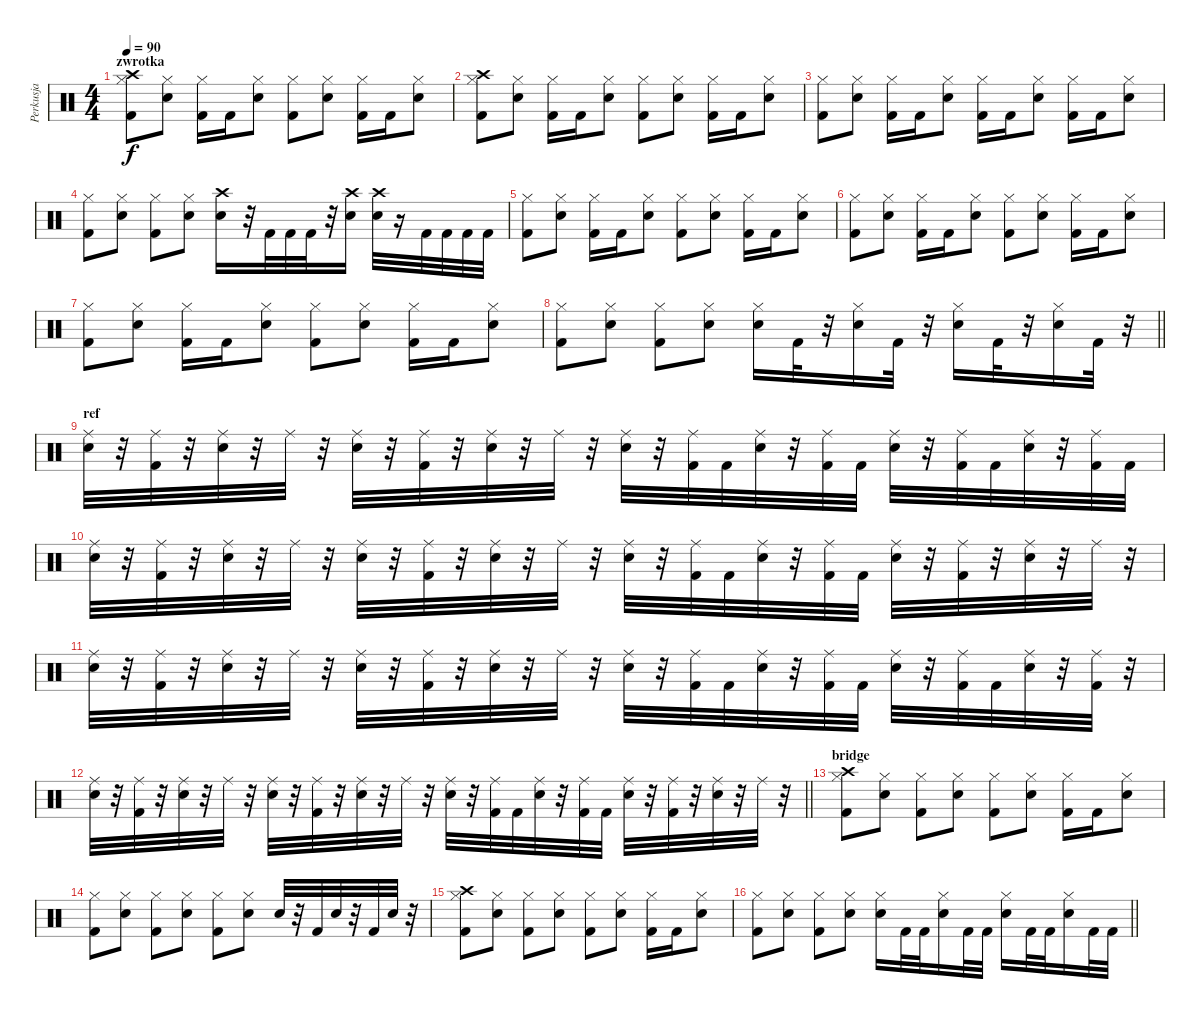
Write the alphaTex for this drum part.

\track ("Perkusja" "Perkusja") {instrument percussion}
\staff {score}
\articulation defaults
\ts (4 4)
\section ("" "zwrotka")
\tempo 90
\clef neutral
\ks c
("Kick (hit) 2" "Hi-Hat (closed)" "Crash high (hit)").8{dy f} ("Snare (hit) 2" "Hi-Hat (closed)").8 ("Kick (hit) 2" "Hi-Hat (closed)").16 "Kick (hit) 2".16 ("Snare (hit) 2" "Hi-Hat (closed)").8 ("Kick (hit) 2" "Hi-Hat (closed)").8 ("Snare (hit) 2" "Hi-Hat (closed)").8 ("Kick (hit) 2" "Hi-Hat (closed)").16 "Kick (hit) 2".16 ("Snare (hit) 2" "Hi-Hat (closed)").8 |
("Kick (hit) 2" "Hi-Hat (closed)" "Crash high (hit)").8 ("Snare (hit) 2" "Hi-Hat (closed)").8 ("Kick (hit) 2" "Hi-Hat (closed)").16 "Kick (hit) 2".16 ("Snare (hit) 2" "Hi-Hat (closed)").8 ("Kick (hit) 2" "Hi-Hat (closed)").8 ("Snare (hit) 2" "Hi-Hat (closed)").8 ("Kick (hit) 2" "Hi-Hat (closed)").16 "Kick (hit) 2".16 ("Snare (hit) 2" "Hi-Hat (closed)").8 |
("Kick (hit) 2" "Hi-Hat (closed)").8 ("Snare (hit) 2" "Hi-Hat (closed)").8 ("Kick (hit) 2" "Hi-Hat (closed)").16 "Kick (hit) 2".16 ("Snare (hit) 2" "Hi-Hat (closed)").8 ("Kick (hit) 2" "Hi-Hat (closed)").16 "Kick (hit) 2".16 ("Snare (hit) 2" "Hi-Hat (closed)").8 ("Kick (hit) 2" "Hi-Hat (closed)").16 "Kick (hit) 2".16 ("Snare (hit) 2" "Hi-Hat (closed)").8 |
("Kick (hit) 2" "Hi-Hat (closed)").8 ("Snare (hit) 2" "Hi-Hat (closed)").8 ("Kick (hit) 2" "Hi-Hat (closed)").8 ("Snare (hit) 2" "Hi-Hat (closed)").8 ("Snare (hit) 2" "Crash high (hit)").16 r.32 "Kick (hit) 2".32 "Kick (hit) 2".32 "Kick (hit) 2".32 r.32 ("Snare (hit) 2" "Crash high (hit)").16 ("Snare (hit) 2" "Crash high (hit)").32 r.16 "Kick (hit) 2".32 "Kick (hit) 2".32 "Kick (hit) 2".32 "Kick (hit) 2".32 |
("Kick (hit) 2" "Hi-Hat (closed)").8 ("Snare (hit) 2" "Hi-Hat (closed)").8 ("Kick (hit) 2" "Hi-Hat (closed)").16 "Kick (hit) 2".16 ("Snare (hit) 2" "Hi-Hat (closed)").8 ("Kick (hit) 2" "Hi-Hat (closed)").8 ("Snare (hit) 2" "Hi-Hat (closed)").8 ("Kick (hit) 2" "Hi-Hat (closed)").16 "Kick (hit) 2".16 ("Snare (hit) 2" "Hi-Hat (closed)").8 |
("Kick (hit) 2" "Hi-Hat (closed)").8 ("Snare (hit) 2" "Hi-Hat (closed)").8 ("Kick (hit) 2" "Hi-Hat (closed)").16 "Kick (hit) 2".16 ("Snare (hit) 2" "Hi-Hat (closed)").8 ("Kick (hit) 2" "Hi-Hat (closed)").8 ("Snare (hit) 2" "Hi-Hat (closed)").8 ("Kick (hit) 2" "Hi-Hat (closed)").16 "Kick (hit) 2".16 ("Snare (hit) 2" "Hi-Hat (closed)").8 |
("Kick (hit) 2" "Hi-Hat (closed)").8 ("Snare (hit) 2" "Hi-Hat (closed)").8 ("Kick (hit) 2" "Hi-Hat (closed)").16 "Kick (hit) 2".16 ("Snare (hit) 2" "Hi-Hat (closed)").8 ("Kick (hit) 2" "Hi-Hat (closed)").8 ("Snare (hit) 2" "Hi-Hat (closed)").8 ("Kick (hit) 2" "Hi-Hat (closed)").16 "Kick (hit) 2".16 ("Snare (hit) 2" "Hi-Hat (closed)").8 |
\barLineRight lightlight
("Kick (hit) 2" "Hi-Hat (closed)").8 ("Snare (hit) 2" "Hi-Hat (closed)").8 ("Kick (hit) 2" "Hi-Hat (closed)").8 ("Snare (hit) 2" "Hi-Hat (closed)").8 ("Snare (hit) 2" "Hi-Hat (closed)").16 "Kick (hit) 2".32 r.32 ("Snare (hit) 2" "Hi-Hat (closed)").16 "Kick (hit) 2".32 r.32 ("Snare (hit) 2" "Hi-Hat (closed)").16 "Kick (hit) 2".32 r.32 ("Snare (hit) 2" "Hi-Hat (closed)").16 "Kick (hit) 2".32 r.32 |
\section ("" "ref")
("Snare (hit) 2" "Ride (middle)").32 r.32 ("Kick (hit) 2" "Ride (middle)").32 r.32 ("Snare (hit) 2" "Ride (middle)").32 r.32 "Ride (middle)".32 r.32 ("Snare (hit) 2" "Ride (middle)").32 r.32 ("Kick (hit) 2" "Ride (middle)").32 r.32 ("Snare (hit) 2" "Ride (middle)").32 r.32 "Ride (middle)".32 r.32 ("Snare (hit) 2" "Ride (middle)").32 r.32 ("Kick (hit) 2" "Ride (middle)").32 "Kick (hit) 2".32 ("Snare (hit) 2" "Ride (middle)").32 r.32 ("Kick (hit) 2" "Ride (middle)").32 "Kick (hit) 2".32 ("Snare (hit) 2" "Ride (middle)").32 r.32 ("Kick (hit) 2" "Ride (middle)").32 "Kick (hit) 2".32 ("Snare (hit) 2" "Ride (middle)").32 r.32 ("Kick (hit) 2" "Ride (middle)").32 "Kick (hit) 2".32 |
("Snare (hit) 2" "Ride (middle)").32 r.32 ("Kick (hit) 2" "Ride (middle)").32 r.32 ("Snare (hit) 2" "Ride (middle)").32 r.32 "Ride (middle)".32 r.32 ("Snare (hit) 2" "Ride (middle)").32 r.32 ("Kick (hit) 2" "Ride (middle)").32 r.32 ("Snare (hit) 2" "Ride (middle)").32 r.32 "Ride (middle)".32 r.32 ("Snare (hit) 2" "Ride (middle)").32 r.32 ("Kick (hit) 2" "Ride (middle)").32 "Kick (hit) 2".32 ("Snare (hit) 2" "Ride (middle)").32 r.32 ("Kick (hit) 2" "Ride (middle)").32 "Kick (hit) 2".32 ("Snare (hit) 2" "Ride (middle)").32 r.32 ("Kick (hit) 2" "Ride (middle)").32 r.32 ("Snare (hit) 2" "Ride (middle)").32 r.32 "Ride (middle)".32 r.32 |
("Snare (hit) 2" "Ride (middle)").32 r.32 ("Kick (hit) 2" "Ride (middle)").32 r.32 ("Snare (hit) 2" "Ride (middle)").32 r.32 "Ride (middle)".32 r.32 ("Snare (hit) 2" "Ride (middle)").32 r.32 ("Kick (hit) 2" "Ride (middle)").32 r.32 ("Snare (hit) 2" "Ride (middle)").32 r.32 "Ride (middle)".32 r.32 ("Snare (hit) 2" "Ride (middle)").32 r.32 ("Kick (hit) 2" "Ride (middle)").32 "Kick (hit) 2".32 ("Snare (hit) 2" "Ride (middle)").32 r.32 ("Kick (hit) 2" "Ride (middle)").32 "Kick (hit) 2".32 ("Snare (hit) 2" "Ride (middle)").32 r.32 ("Kick (hit) 2" "Ride (middle)").32 "Kick (hit) 2".32 ("Snare (hit) 2" "Ride (middle)").32 r.32 ("Kick (hit) 2" "Ride (middle)").32 r.32 |
\barLineRight lightlight
("Snare (hit) 2" "Ride (middle)").32 r.32 ("Kick (hit) 2" "Ride (middle)").32 r.32 ("Snare (hit) 2" "Ride (middle)").32 r.32 "Ride (middle)".32 r.32 ("Snare (hit) 2" "Ride (middle)").32 r.32 ("Kick (hit) 2" "Ride (middle)").32 r.32 ("Snare (hit) 2" "Ride (middle)").32 r.32 "Ride (middle)".32 r.32 ("Snare (hit) 2" "Ride (middle)").32 r.32 ("Kick (hit) 2" "Ride (middle)").32 "Kick (hit) 2".32 ("Snare (hit) 2" "Ride (middle)").32 r.32 ("Kick (hit) 2" "Ride (middle)").32 "Kick (hit) 2".32 ("Snare (hit) 2" "Ride (middle)").32 r.32 ("Kick (hit) 2" "Ride (middle)").32 r.32 ("Snare (hit) 2" "Ride (middle)").32 r.32 "Ride (middle)".32 r.32 |
\section ("" "bridge")
("Kick (hit) 2" "Hi-Hat (closed)" "Crash high (hit)").8 ("Snare (hit) 2" "Hi-Hat (closed)").8 ("Kick (hit) 2" "Hi-Hat (closed)").8 ("Snare (hit) 2" "Hi-Hat (closed)").8 ("Kick (hit) 2" "Hi-Hat (closed)").8 ("Snare (hit) 2" "Hi-Hat (closed)").8 ("Kick (hit) 2" "Hi-Hat (closed)").16 "Kick (hit) 2".16 ("Snare (hit) 2" "Hi-Hat (closed)").8 |
("Kick (hit) 2" "Hi-Hat (closed)").8 ("Snare (hit) 2" "Hi-Hat (closed)").8 ("Kick (hit) 2" "Hi-Hat (closed)").8 ("Snare (hit) 2" "Hi-Hat (closed)").8 ("Kick (hit) 2" "Hi-Hat (closed)").8 ("Snare (hit) 2" "Hi-Hat (closed)").8 "Snare (hit) 2".32 r.32 "Kick (hit) 2".32 "Snare (hit) 2".32 r.32 "Kick (hit) 2".32 "Snare (hit) 2".32 r.32 |
("Kick (hit) 2" "Hi-Hat (closed)" "Crash high (hit)").8 ("Snare (hit) 2" "Hi-Hat (closed)").8 ("Kick (hit) 2" "Hi-Hat (closed)").8 ("Snare (hit) 2" "Hi-Hat (closed)").8 ("Kick (hit) 2" "Hi-Hat (closed)").8 ("Snare (hit) 2" "Hi-Hat (closed)").8 ("Kick (hit) 2" "Hi-Hat (closed)").16 "Kick (hit) 2".16 ("Snare (hit) 2" "Hi-Hat (closed)").8 |
\barLineRight lightlight
("Kick (hit) 2" "Hi-Hat (closed)").8 ("Snare (hit) 2" "Hi-Hat (closed)").8 ("Kick (hit) 2" "Hi-Hat (closed)").8 ("Snare (hit) 2" "Hi-Hat (closed)").8 ("Snare (hit) 2" "Hi-Hat (closed)").16 "Kick (hit) 2".32 "Kick (hit) 2".32 ("Snare (hit) 2" "Hi-Hat (closed)").16 "Kick (hit) 2".32 "Kick (hit) 2".32 ("Snare (hit) 2" "Hi-Hat (closed)").16 "Kick (hit) 2".32 "Kick (hit) 2".32 ("Snare (hit) 2" "Hi-Hat (closed)").16 "Kick (hit) 2".32 "Kick (hit) 2".32
